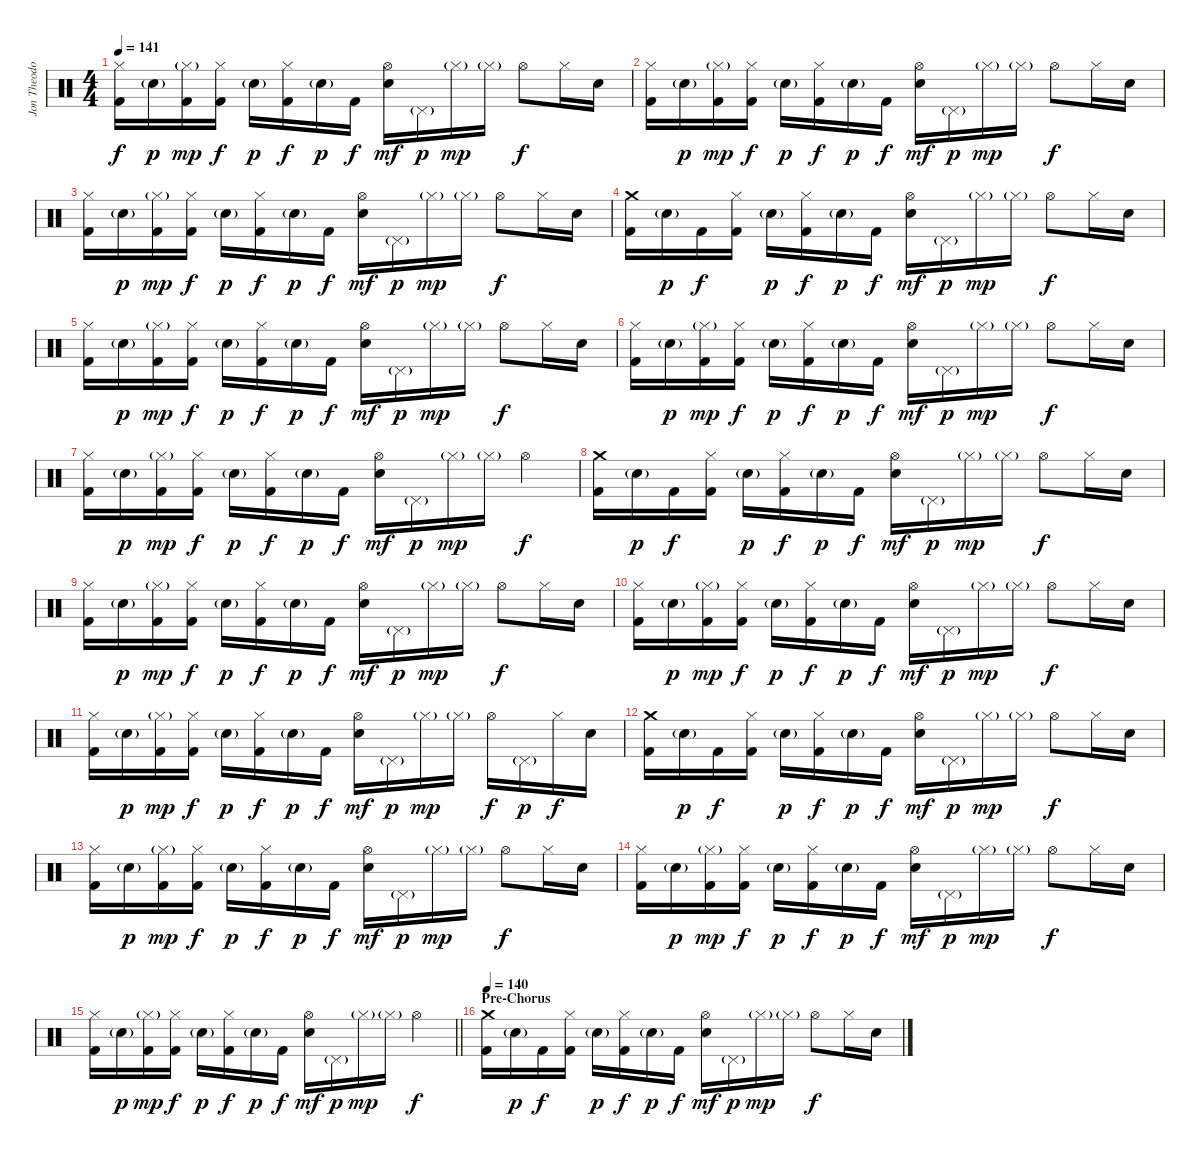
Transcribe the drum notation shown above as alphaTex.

\track ("Jon Theodore - Drums" "Jon Theodo") {instrument percussion}
\staff {score}
\articulation defaults
\ts (4 4)
\tempo 141
\clef neutral
\ks c
("Hi-Hat (closed)" "Kick (hit) 2").16{dy f} "Electric Snare (hit)"{g}.16{dy p} ("Hi-Hat (closed)"{g} "Kick (hit) 2").16{dy mp} ("Hi-Hat (closed)" "Kick (hit) 2").16{dy f} "Electric Snare (hit)"{g}.16{dy p} ("Hi-Hat (closed)" "Kick (hit) 2").16{dy f} "Electric Snare (hit)"{g}.16{dy p} "Kick (hit) 2".16{dy f} ("Hi-Hat (open)" "Electric Snare (hit)").16{dy mf} "Pedal Hi-Hat (hit)"{g}.16{dy p} "Hi-Hat (closed)"{g}.16{dy mp} "Hi-Hat (closed)"{g}.16 "Hi-Hat (open)".8{dy f} "Hi-Hat (closed)".16 "Electric Snare (hit)".16 |
("Hi-Hat (closed)" "Kick (hit) 2").16 "Electric Snare (hit)"{g}.16{dy p} ("Hi-Hat (closed)"{g} "Kick (hit) 2").16{dy mp} ("Hi-Hat (closed)" "Kick (hit) 2").16{dy f} "Electric Snare (hit)"{g}.16{dy p} ("Hi-Hat (closed)" "Kick (hit) 2").16{dy f} "Electric Snare (hit)"{g}.16{dy p} "Kick (hit) 2".16{dy f} ("Hi-Hat (open)" "Electric Snare (hit)").16{dy mf} "Pedal Hi-Hat (hit)"{g}.16{dy p} "Hi-Hat (closed)"{g}.16{dy mp} "Hi-Hat (closed)"{g}.16 "Hi-Hat (open)".8{dy f} "Hi-Hat (closed)".16 "Electric Snare (hit)".16 |
("Hi-Hat (closed)" "Kick (hit) 2").16 "Electric Snare (hit)"{g}.16{dy p} ("Hi-Hat (closed)"{g} "Kick (hit) 2").16{dy mp} ("Hi-Hat (closed)" "Kick (hit) 2").16{dy f} "Electric Snare (hit)"{g}.16{dy p} ("Hi-Hat (closed)" "Kick (hit) 2").16{dy f} "Electric Snare (hit)"{g}.16{dy p} "Kick (hit) 2".16{dy f} ("Hi-Hat (open)" "Electric Snare (hit)").16{dy mf} "Pedal Hi-Hat (hit)"{g}.16{dy p} "Hi-Hat (closed)"{g}.16{dy mp} "Hi-Hat (closed)"{g}.16 "Hi-Hat (open)".8{dy f} "Hi-Hat (closed)".16 "Electric Snare (hit)".16 |
("Crash medium (hit)" "Kick (hit) 2").16 "Electric Snare (hit)"{g}.16{dy p} "Kick (hit) 2".16{dy f} ("Hi-Hat (closed)" "Kick (hit) 2").16 "Electric Snare (hit)"{g}.16{dy p} ("Hi-Hat (closed)" "Kick (hit) 2").16{dy f} "Electric Snare (hit)"{g}.16{dy p} "Kick (hit) 2".16{dy f} ("Hi-Hat (open)" "Electric Snare (hit)").16{dy mf} "Pedal Hi-Hat (hit)"{g}.16{dy p} "Hi-Hat (closed)"{g}.16{dy mp} "Hi-Hat (closed)"{g}.16 "Hi-Hat (open)".8{dy f} "Hi-Hat (closed)".16 "Electric Snare (hit)".16 |
("Hi-Hat (closed)" "Kick (hit) 2").16 "Electric Snare (hit)"{g}.16{dy p} ("Hi-Hat (closed)"{g} "Kick (hit) 2").16{dy mp} ("Hi-Hat (closed)" "Kick (hit) 2").16{dy f} "Electric Snare (hit)"{g}.16{dy p} ("Hi-Hat (closed)" "Kick (hit) 2").16{dy f} "Electric Snare (hit)"{g}.16{dy p} "Kick (hit) 2".16{dy f} ("Hi-Hat (open)" "Electric Snare (hit)").16{dy mf} "Pedal Hi-Hat (hit)"{g}.16{dy p} "Hi-Hat (closed)"{g}.16{dy mp} "Hi-Hat (closed)"{g}.16 "Hi-Hat (open)".8{dy f} "Hi-Hat (closed)".16 "Electric Snare (hit)".16 |
("Hi-Hat (closed)" "Kick (hit) 2").16 "Electric Snare (hit)"{g}.16{dy p} ("Hi-Hat (closed)"{g} "Kick (hit) 2").16{dy mp} ("Hi-Hat (closed)" "Kick (hit) 2").16{dy f} "Electric Snare (hit)"{g}.16{dy p} ("Hi-Hat (closed)" "Kick (hit) 2").16{dy f} "Electric Snare (hit)"{g}.16{dy p} "Kick (hit) 2".16{dy f} ("Hi-Hat (open)" "Electric Snare (hit)").16{dy mf} "Pedal Hi-Hat (hit)"{g}.16{dy p} "Hi-Hat (closed)"{g}.16{dy mp} "Hi-Hat (closed)"{g}.16 "Hi-Hat (open)".8{dy f} "Hi-Hat (closed)".16 "Electric Snare (hit)".16 |
("Hi-Hat (closed)" "Kick (hit) 2").16 "Electric Snare (hit)"{g}.16{dy p} ("Hi-Hat (closed)"{g} "Kick (hit) 2").16{dy mp} ("Hi-Hat (closed)" "Kick (hit) 2").16{dy f} "Electric Snare (hit)"{g}.16{dy p} ("Hi-Hat (closed)" "Kick (hit) 2").16{dy f} "Electric Snare (hit)"{g}.16{dy p} "Kick (hit) 2".16{dy f} ("Hi-Hat (open)" "Electric Snare (hit)").16{dy mf} "Pedal Hi-Hat (hit)"{g}.16{dy p} "Hi-Hat (closed)"{g}.16{dy mp} "Hi-Hat (closed)"{g}.16 "Hi-Hat (open)".4{dy f} |
("Crash medium (hit)" "Kick (hit) 2").16 "Electric Snare (hit)"{g}.16{dy p} "Kick (hit) 2".16{dy f} ("Hi-Hat (closed)" "Kick (hit) 2").16 "Electric Snare (hit)"{g}.16{dy p} ("Hi-Hat (closed)" "Kick (hit) 2").16{dy f} "Electric Snare (hit)"{g}.16{dy p} "Kick (hit) 2".16{dy f} ("Hi-Hat (open)" "Electric Snare (hit)").16{dy mf} "Pedal Hi-Hat (hit)"{g}.16{dy p} "Hi-Hat (closed)"{g}.16{dy mp} "Hi-Hat (closed)"{g}.16 "Hi-Hat (open)".8{dy f} "Hi-Hat (closed)".16 "Electric Snare (hit)".16 |
("Hi-Hat (closed)" "Kick (hit) 2").16 "Electric Snare (hit)"{g}.16{dy p} ("Hi-Hat (closed)"{g} "Kick (hit) 2").16{dy mp} ("Hi-Hat (closed)" "Kick (hit) 2").16{dy f} "Electric Snare (hit)"{g}.16{dy p} ("Hi-Hat (closed)" "Kick (hit) 2").16{dy f} "Electric Snare (hit)"{g}.16{dy p} "Kick (hit) 2".16{dy f} ("Hi-Hat (open)" "Electric Snare (hit)").16{dy mf} "Pedal Hi-Hat (hit)"{g}.16{dy p} "Hi-Hat (closed)"{g}.16{dy mp} "Hi-Hat (closed)"{g}.16 "Hi-Hat (open)".8{dy f} "Hi-Hat (closed)".16 "Electric Snare (hit)".16 |
("Hi-Hat (closed)" "Kick (hit) 2").16 "Electric Snare (hit)"{g}.16{dy p} ("Hi-Hat (closed)"{g} "Kick (hit) 2").16{dy mp} ("Hi-Hat (closed)" "Kick (hit) 2").16{dy f} "Electric Snare (hit)"{g}.16{dy p} ("Hi-Hat (closed)" "Kick (hit) 2").16{dy f} "Electric Snare (hit)"{g}.16{dy p} "Kick (hit) 2".16{dy f} ("Hi-Hat (open)" "Electric Snare (hit)").16{dy mf} "Pedal Hi-Hat (hit)"{g}.16{dy p} "Hi-Hat (closed)"{g}.16{dy mp} "Hi-Hat (closed)"{g}.16 "Hi-Hat (open)".8{dy f} "Hi-Hat (closed)".16 "Electric Snare (hit)".16 |
("Hi-Hat (closed)" "Kick (hit) 2").16 "Electric Snare (hit)"{g}.16{dy p} ("Hi-Hat (closed)"{g} "Kick (hit) 2").16{dy mp} ("Hi-Hat (closed)" "Kick (hit) 2").16{dy f} "Electric Snare (hit)"{g}.16{dy p} ("Hi-Hat (closed)" "Kick (hit) 2").16{dy f} "Electric Snare (hit)"{g}.16{dy p} "Kick (hit) 2".16{dy f} ("Hi-Hat (open)" "Electric Snare (hit)").16{dy mf} "Pedal Hi-Hat (hit)"{g}.16{dy p} "Hi-Hat (closed)"{g}.16{dy mp} "Hi-Hat (closed)"{g}.16 "Hi-Hat (open)".16{dy f} "Pedal Hi-Hat (hit)"{g}.16{dy p} "Hi-Hat (closed)".16{dy f} "Electric Snare (hit)".16 |
("Crash medium (hit)" "Kick (hit) 2").16 "Electric Snare (hit)"{g}.16{dy p} "Kick (hit) 2".16{dy f} ("Hi-Hat (closed)" "Kick (hit) 2").16 "Electric Snare (hit)"{g}.16{dy p} ("Hi-Hat (closed)" "Kick (hit) 2").16{dy f} "Electric Snare (hit)"{g}.16{dy p} "Kick (hit) 2".16{dy f} ("Hi-Hat (open)" "Electric Snare (hit)").16{dy mf} "Pedal Hi-Hat (hit)"{g}.16{dy p} "Hi-Hat (closed)"{g}.16{dy mp} "Hi-Hat (closed)"{g}.16 "Hi-Hat (open)".8{dy f} "Hi-Hat (closed)".16 "Electric Snare (hit)".16 |
("Hi-Hat (closed)" "Kick (hit) 2").16 "Electric Snare (hit)"{g}.16{dy p} ("Hi-Hat (closed)"{g} "Kick (hit) 2").16{dy mp} ("Hi-Hat (closed)" "Kick (hit) 2").16{dy f} "Electric Snare (hit)"{g}.16{dy p} ("Hi-Hat (closed)" "Kick (hit) 2").16{dy f} "Electric Snare (hit)"{g}.16{dy p} "Kick (hit) 2".16{dy f} ("Hi-Hat (open)" "Electric Snare (hit)").16{dy mf} "Pedal Hi-Hat (hit)"{g}.16{dy p} "Hi-Hat (closed)"{g}.16{dy mp} "Hi-Hat (closed)"{g}.16 "Hi-Hat (open)".8{dy f} "Hi-Hat (closed)".16 "Electric Snare (hit)".16 |
("Hi-Hat (closed)" "Kick (hit) 2").16 "Electric Snare (hit)"{g}.16{dy p} ("Hi-Hat (closed)"{g} "Kick (hit) 2").16{dy mp} ("Hi-Hat (closed)" "Kick (hit) 2").16{dy f} "Electric Snare (hit)"{g}.16{dy p} ("Hi-Hat (closed)" "Kick (hit) 2").16{dy f} "Electric Snare (hit)"{g}.16{dy p} "Kick (hit) 2".16{dy f} ("Hi-Hat (open)" "Electric Snare (hit)").16{dy mf} "Pedal Hi-Hat (hit)"{g}.16{dy p} "Hi-Hat (closed)"{g}.16{dy mp} "Hi-Hat (closed)"{g}.16 "Hi-Hat (open)".8{dy f} "Hi-Hat (closed)".16 "Electric Snare (hit)".16 |
\barLineRight lightlight
("Hi-Hat (closed)" "Kick (hit) 2").16 "Electric Snare (hit)"{g}.16{dy p} ("Hi-Hat (closed)"{g} "Kick (hit) 2").16{dy mp} ("Hi-Hat (closed)" "Kick (hit) 2").16{dy f} "Electric Snare (hit)"{g}.16{dy p} ("Hi-Hat (closed)" "Kick (hit) 2").16{dy f} "Electric Snare (hit)"{g}.16{dy p} "Kick (hit) 2".16{dy f} ("Hi-Hat (open)" "Electric Snare (hit)").16{dy mf} "Pedal Hi-Hat (hit)"{g}.16{dy p} "Hi-Hat (closed)"{g}.16{dy mp} "Hi-Hat (closed)"{g}.16 "Hi-Hat (open)".4{dy f} |
\section ("" "Pre-Chorus")
\tempo 140
("Crash medium (hit)" "Kick (hit) 2").16 "Electric Snare (hit)"{g}.16{dy p} "Kick (hit) 2".16{dy f} ("Hi-Hat (closed)" "Kick (hit) 2").16 "Electric Snare (hit)"{g}.16{dy p} ("Hi-Hat (closed)" "Kick (hit) 2").16{dy f} "Electric Snare (hit)"{g}.16{dy p} "Kick (hit) 2".16{dy f} ("Hi-Hat (open)" "Electric Snare (hit)").16{dy mf} "Pedal Hi-Hat (hit)"{g}.16{dy p} "Hi-Hat (closed)"{g}.16{dy mp} "Hi-Hat (closed)"{g}.16 "Hi-Hat (open)".8{dy f} "Hi-Hat (closed)".16 "Electric Snare (hit)".16
